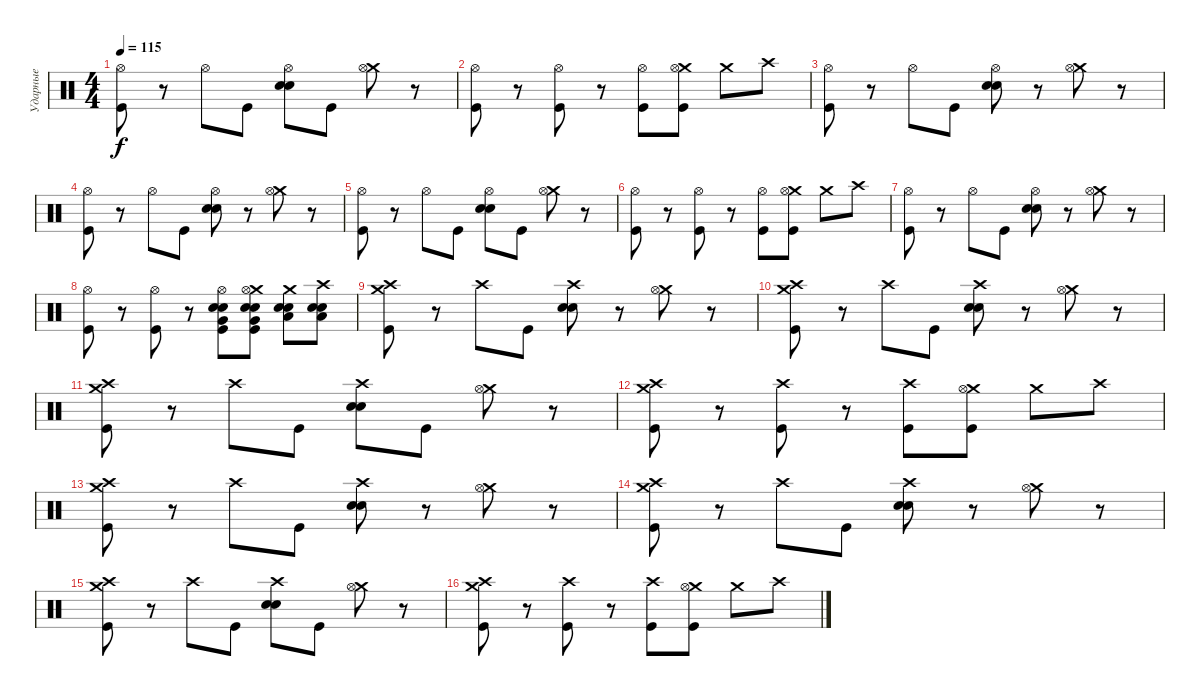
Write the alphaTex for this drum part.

\track ("Ударные" "Ударные") {instrument percussion}
\staff {score}
\articulation defaults
\ts (4 4)
\tempo 115
\clef neutral
\ks c
("Hi-Hat (open)" "Kick (hit)").8{dy f} r.8 "Hi-Hat (open)".8 "Kick (hit)".8 ("Hi-Hat (open)" "Snare (hit) 2" "Snare (hit) 2").8 "Kick (hit)".8 ("Crash medium (hit)" "Hi-Hat (open)").8 r.8 |
("Hi-Hat (open)" "Kick (hit)").8 r.8 ("Hi-Hat (open)" "Kick (hit)").8 r.8 ("Hi-Hat (open)" "Kick (hit)").8 ("Crash medium (hit)" "Hi-Hat (open)" "Kick (hit)").8 "Crash medium (hit)".8 "Crash high (hit)".8 |
("Hi-Hat (open)" "Kick (hit)").8 r.8 "Hi-Hat (open)".8 "Kick (hit)".8 ("Hi-Hat (open)" "Snare (hit) 2" "Snare (hit) 2").8 r.8 ("Crash medium (hit)" "Hi-Hat (open)").8 r.8 |
("Hi-Hat (open)" "Kick (hit)").8 r.8 "Hi-Hat (open)".8 "Kick (hit)".8 ("Hi-Hat (open)" "Snare (hit) 2" "Snare (hit) 2").8 r.8 ("Crash medium (hit)" "Hi-Hat (open)").8 r.8 |
("Hi-Hat (open)" "Kick (hit)").8 r.8 "Hi-Hat (open)".8 "Kick (hit)".8 ("Hi-Hat (open)" "Snare (hit) 2" "Snare (hit) 2").8 "Kick (hit)".8 ("Crash medium (hit)" "Hi-Hat (open)").8 r.8 |
("Hi-Hat (open)" "Kick (hit)").8 r.8 ("Hi-Hat (open)" "Kick (hit)").8 r.8 ("Hi-Hat (open)" "Kick (hit)").8 ("Crash medium (hit)" "Hi-Hat (open)" "Kick (hit)").8 "Crash medium (hit)".8 "Crash high (hit)".8 |
("Hi-Hat (open)" "Kick (hit)").8 r.8 "Hi-Hat (open)".8 "Kick (hit)".8 ("Hi-Hat (open)" "Snare (hit) 2" "Snare (hit) 2").8 r.8 ("Crash medium (hit)" "Hi-Hat (open)").8 r.8 |
("Hi-Hat (open)" "Kick (hit)").8 r.8 ("Hi-Hat (open)" "Kick (hit)").8 r.8 ("Hi-Hat (open)" "Snare (hit) 2" "Snare (hit) 2" "Very Low Tom (hit)" "Kick (hit)").8 ("Crash medium (hit)" "Hi-Hat (open)" "Snare (hit) 2" "Snare (hit) 2" "Very Low Tom (hit)" "Kick (hit)").8 ("Crash medium (hit)" "Electric Snare (hit)" "Electric Snare (hit)" "Low Floor Tom (hit)").8 ("Crash high (hit)" "Electric Snare (hit)" "Electric Snare (hit)" "Low Floor Tom (hit)").8 |
("Crash high (hit)" "Crash medium (hit)" "Kick (hit)").8 r.8 "Crash high (hit)".8 "Kick (hit)".8 ("Crash high (hit)" "Snare (hit) 2" "Snare (hit) 2").8 r.8 ("Crash medium (hit)" "Hi-Hat (open)").8 r.8 |
("Crash high (hit)" "Crash medium (hit)" "Kick (hit)").8 r.8 "Crash high (hit)".8 "Kick (hit)".8 ("Crash high (hit)" "Snare (hit) 2" "Snare (hit) 2").8 r.8 ("Crash medium (hit)" "Hi-Hat (open)").8 r.8 |
("Crash high (hit)" "Crash medium (hit)" "Kick (hit)").8 r.8 "Crash high (hit)".8 "Kick (hit)".8 ("Crash high (hit)" "Snare (hit) 2" "Snare (hit) 2").8 "Kick (hit)".8 ("Crash medium (hit)" "Hi-Hat (open)").8 r.8 |
("Crash high (hit)" "Crash medium (hit)" "Kick (hit)").8 r.8 ("Crash high (hit)" "Kick (hit)").8 r.8 ("Crash high (hit)" "Kick (hit)").8 ("Crash medium (hit)" "Hi-Hat (open)" "Kick (hit)").8 "Crash medium (hit)".8 "Crash high (hit)".8 |
("Crash high (hit)" "Crash medium (hit)" "Kick (hit)").8 r.8 "Crash high (hit)".8 "Kick (hit)".8 ("Crash high (hit)" "Snare (hit) 2" "Snare (hit) 2").8 r.8 ("Crash medium (hit)" "Hi-Hat (open)").8 r.8 |
("Crash high (hit)" "Crash medium (hit)" "Kick (hit)").8 r.8 "Crash high (hit)".8 "Kick (hit)".8 ("Crash high (hit)" "Snare (hit) 2" "Snare (hit) 2").8 r.8 ("Crash medium (hit)" "Hi-Hat (open)").8 r.8 |
("Crash high (hit)" "Crash medium (hit)" "Kick (hit)").8 r.8 "Crash high (hit)".8 "Kick (hit)".8 ("Crash high (hit)" "Snare (hit) 2" "Snare (hit) 2").8 "Kick (hit)".8 ("Crash medium (hit)" "Hi-Hat (open)").8 r.8 |
("Crash high (hit)" "Crash medium (hit)" "Kick (hit)").8 r.8 ("Crash high (hit)" "Kick (hit)").8 r.8 ("Crash high (hit)" "Kick (hit)").8 ("Crash medium (hit)" "Hi-Hat (open)" "Kick (hit)").8 "Crash medium (hit)".8 "Crash high (hit)".8
